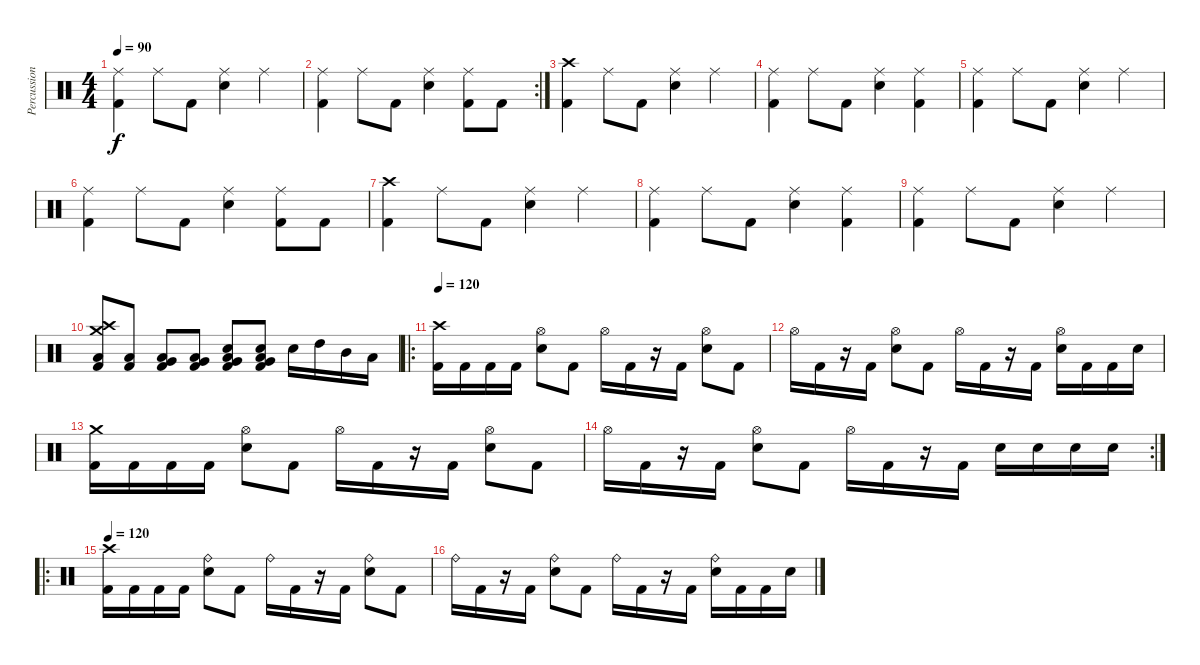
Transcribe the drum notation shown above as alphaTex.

\track ("Percussions" "Percussion") {instrument percussion}
\staff {score}
\articulation defaults
\ts (4 4)
\tempo 90
\clef neutral
\ks c
("Ride (middle)" "Kick (hit) 2").4{dy f} "Ride (middle)".8 "Kick (hit) 2".8 ("Ride (middle)" "Electric Snare (hit)").4 "Ride (middle)".4 |
\rc 2
("Ride (middle)" "Kick (hit) 2").4 "Ride (middle)".8 "Kick (hit) 2".8 ("Ride (middle)" "Electric Snare (hit)").4 ("Ride (middle)" "Kick (hit) 2").8 "Kick (hit) 2".8 |
("Crash high (hit)" "Kick (hit) 2").4 "Ride (middle)".8 "Kick (hit) 2".8 ("Ride (middle)" "Electric Snare (hit)").4 "Ride (middle)".4 |
("Ride (middle)" "Kick (hit) 2").4 "Ride (middle)".8 "Kick (hit) 2".8 ("Ride (middle)" "Electric Snare (hit)").4 ("Ride (middle)" "Kick (hit) 2").4 |
("Ride (middle)" "Kick (hit) 2").4 "Ride (middle)".8 "Kick (hit) 2".8 ("Ride (middle)" "Electric Snare (hit)").4 "Ride (middle)".4 |
("Ride (middle)" "Kick (hit) 2").4 "Ride (middle)".8 "Kick (hit) 2".8 ("Ride (middle)" "Electric Snare (hit)").4 ("Ride (middle)" "Kick (hit) 2").8 "Kick (hit) 2".8 |
("Crash high (hit)" "Kick (hit) 2").4 "Ride (middle)".8 "Kick (hit) 2".8 ("Ride (middle)" "Electric Snare (hit)").4 "Ride (middle)".4 |
("Ride (middle)" "Kick (hit) 2").4 "Ride (middle)".8 "Kick (hit) 2".8 ("Ride (middle)" "Electric Snare (hit)").4 ("Ride (middle)" "Kick (hit) 2").4 |
("Ride (middle)" "Kick (hit) 2").4 "Ride (middle)".8 "Kick (hit) 2".8 ("Ride (middle)" "Electric Snare (hit)").4 "Ride (middle)".4 |
("Crash medium (hit)" "Crash high (hit)" "Low Floor Tom (hit)" "Kick (hit) 2").8 ("Low Floor Tom (hit)" "Kick (hit) 2").8 ("Very Low Tom (hit)" "Low Floor Tom (hit)" "Kick (hit) 2").8 ("Very Low Tom (hit)" "Low Floor Tom (hit)" "Kick (hit) 2").8 ("Electric Snare (hit)" "Very Low Tom (hit)" "Low Floor Tom (hit)" "Kick (hit) 2").8 ("Electric Snare (hit)" "Very Low Tom (hit)" "Low Floor Tom (hit)" "Kick (hit) 2").8 "Electric Snare (hit)".16 "High Tom (hit)".16 "Mid Tom (hit)".16 "Low Tom (hit)".16 |
\ro
\tempo 120
("Crash high (hit)" "Kick (hit) 2").16 "Kick (hit) 2".16 "Kick (hit) 2".16 "Kick (hit) 2".16 ("Hi-Hat (open)" "Electric Snare (hit)").8 "Kick (hit) 2".8 "Hi-Hat (open)".16 "Kick (hit) 2".16 r.16 "Kick (hit) 2".16 ("Hi-Hat (open)" "Electric Snare (hit)").8 "Kick (hit) 2".8 |
"Hi-Hat (open)".16 "Kick (hit) 2".16 r.16 "Kick (hit) 2".16 ("Hi-Hat (open)" "Electric Snare (hit)").8 "Kick (hit) 2".8 "Hi-Hat (open)".16 "Kick (hit) 2".16 r.16 "Kick (hit) 2".16 ("Hi-Hat (open)" "Electric Snare (hit)").16 "Kick (hit) 2".16 "Kick (hit) 2".16 "Electric Snare (hit)".16 |
("Crash medium (hit)" "Kick (hit) 2").16 "Kick (hit) 2".16 "Kick (hit) 2".16 "Kick (hit) 2".16 ("Hi-Hat (open)" "Electric Snare (hit)").8 "Kick (hit) 2".8 "Hi-Hat (open)".16 "Kick (hit) 2".16 r.16 "Kick (hit) 2".16 ("Hi-Hat (open)" "Electric Snare (hit)").8 "Kick (hit) 2".8 |
\rc 2 "Hi-Hat (open)".16 "Kick (hit) 2".16
r.16 "Kick (hit) 2".16 ("Hi-Hat (open)" "Electric Snare (hit)").8 "Kick (hit) 2".8 "Hi-Hat (open)".16 "Kick (hit) 2".16 r.16 "Kick (hit) 2".16 "Electric Snare (hit)".16 "Electric Snare (hit)".16 "Electric Snare (hit)".16 "Electric Snare (hit)".16 |
\ro
\tempo 120
("Crash high (hit)" "Kick (hit) 2").16 "Kick (hit) 2".16 "Kick (hit) 2".16 "Kick (hit) 2".16 ("Ride (bell)" "Electric Snare (hit)").8 "Kick (hit) 2".8 "Ride (bell)".16 "Kick (hit) 2".16 r.16 "Kick (hit) 2".16 ("Ride (bell)" "Electric Snare (hit)").8 "Kick (hit) 2".8 |
"Ride (bell)".16 "Kick (hit) 2".16 r.16 "Kick (hit) 2".16 ("Ride (bell)" "Electric Snare (hit)").8 "Kick (hit) 2".8 "Ride (bell)".16 "Kick (hit) 2".16 r.16 "Kick (hit) 2".16 ("Ride (bell)" "Electric Snare (hit)").16 "Kick (hit) 2".16 "Kick (hit) 2".16 "Electric Snare (hit)".16
